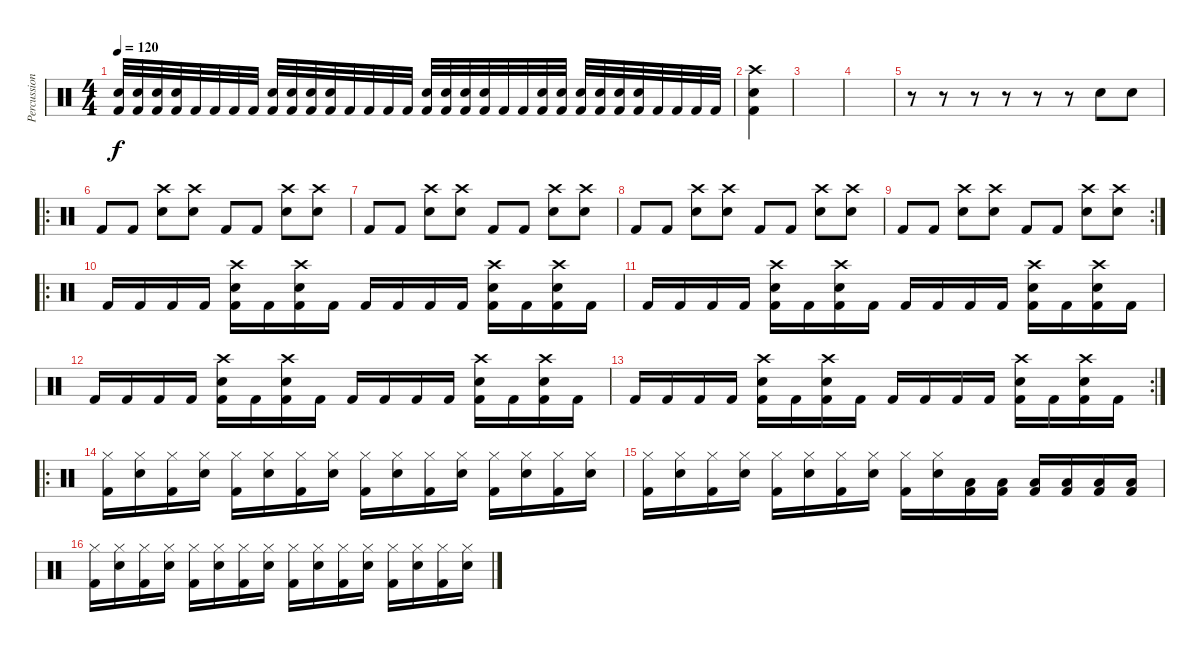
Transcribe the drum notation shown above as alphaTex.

\track ("Percussion" "Percussion") {instrument percussion}
\staff {score}
\articulation defaults
\ts (4 4)
\tempo 120
\clef neutral
\ks c
("Snare (hit) 2" "Kick (hit) 2").32{dy f} ("Snare (hit) 2" "Kick (hit) 2").32 ("Snare (hit) 2" "Kick (hit) 2").32 ("Snare (hit) 2" "Kick (hit) 2").32 "Kick (hit) 2".32 "Kick (hit) 2".32 "Kick (hit) 2".32 "Kick (hit) 2".32 ("Snare (hit) 2" "Kick (hit) 2").32 ("Snare (hit) 2" "Kick (hit) 2").32 ("Snare (hit) 2" "Kick (hit) 2").32 ("Snare (hit) 2" "Kick (hit) 2").32 "Kick (hit) 2".32 "Kick (hit) 2".32 "Kick (hit) 2".32 "Kick (hit) 2".32 ("Snare (hit) 2" "Kick (hit) 2").32 ("Snare (hit) 2" "Kick (hit) 2").32 ("Snare (hit) 2" "Kick (hit) 2").32 ("Snare (hit) 2" "Kick (hit) 2").32 "Kick (hit) 2".32 "Kick (hit) 2".32 ("Snare (hit) 2" "Kick (hit) 2").32 ("Snare (hit) 2" "Kick (hit) 2").32 ("Snare (hit) 2" "Kick (hit) 2").32 ("Snare (hit) 2" "Kick (hit) 2").32 ("Snare (hit) 2" "Kick (hit) 2").32 ("Snare (hit) 2" "Kick (hit) 2").32 "Kick (hit) 2".32 "Kick (hit) 2".32 "Kick (hit) 2".32 "Kick (hit) 2".32 |
("Crash high (hit)" "Snare (hit) 2" "Kick (hit) 2").4 |
|
|
r.8 r.8 r.8 r.8 r.8 r.8 "Snare (hit) 2".8 "Snare (hit) 2".8 |
\ro "Kick (hit) 2".8 "Kick (hit) 2".8
("Crash high (hit)" "Snare (hit) 2").8 ("Crash high (hit)" "Snare (hit) 2").8 "Kick (hit) 2".8 "Kick (hit) 2".8 ("Crash high (hit)" "Snare (hit) 2").8 ("Crash high (hit)" "Snare (hit) 2").8 |
"Kick (hit) 2".8 "Kick (hit) 2".8 ("Crash high (hit)" "Snare (hit) 2").8 ("Crash high (hit)" "Snare (hit) 2").8 "Kick (hit) 2".8 "Kick (hit) 2".8 ("Crash high (hit)" "Snare (hit) 2").8 ("Crash high (hit)" "Snare (hit) 2").8 |
"Kick (hit) 2".8 "Kick (hit) 2".8 ("Crash high (hit)" "Snare (hit) 2").8 ("Crash high (hit)" "Snare (hit) 2").8 "Kick (hit) 2".8 "Kick (hit) 2".8 ("Crash high (hit)" "Snare (hit) 2").8 ("Crash high (hit)" "Snare (hit) 2").8 |
\rc 2 "Kick (hit) 2".8 "Kick (hit) 2".8
("Crash high (hit)" "Snare (hit) 2").8 ("Crash high (hit)" "Snare (hit) 2").8 "Kick (hit) 2".8 "Kick (hit) 2".8 ("Crash high (hit)" "Snare (hit) 2").8 ("Crash high (hit)" "Snare (hit) 2").8 |
\ro "Kick (hit) 2".16 "Kick (hit) 2".16 "Kick (hit) 2".16 "Kick (hit) 2".16
("Crash high (hit)" "Snare (hit) 2" "Kick (hit) 2").16 "Kick (hit) 2".16 ("Crash high (hit)" "Snare (hit) 2" "Kick (hit) 2").16 "Kick (hit) 2".16 "Kick (hit) 2".16 "Kick (hit) 2".16 "Kick (hit) 2".16 "Kick (hit) 2".16 ("Crash high (hit)" "Snare (hit) 2" "Kick (hit) 2").16 "Kick (hit) 2".16 ("Crash high (hit)" "Snare (hit) 2" "Kick (hit) 2").16 "Kick (hit) 2".16 |
"Kick (hit) 2".16 "Kick (hit) 2".16 "Kick (hit) 2".16 "Kick (hit) 2".16 ("Crash high (hit)" "Snare (hit) 2" "Kick (hit) 2").16 "Kick (hit) 2".16 ("Crash high (hit)" "Snare (hit) 2" "Kick (hit) 2").16 "Kick (hit) 2".16 "Kick (hit) 2".16 "Kick (hit) 2".16 "Kick (hit) 2".16 "Kick (hit) 2".16 ("Crash high (hit)" "Snare (hit) 2" "Kick (hit) 2").16 "Kick (hit) 2".16 ("Crash high (hit)" "Snare (hit) 2" "Kick (hit) 2").16 "Kick (hit) 2".16 |
"Kick (hit) 2".16 "Kick (hit) 2".16 "Kick (hit) 2".16 "Kick (hit) 2".16 ("Crash high (hit)" "Snare (hit) 2" "Kick (hit) 2").16 "Kick (hit) 2".16 ("Crash high (hit)" "Snare (hit) 2" "Kick (hit) 2").16 "Kick (hit) 2".16 "Kick (hit) 2".16 "Kick (hit) 2".16 "Kick (hit) 2".16 "Kick (hit) 2".16 ("Crash high (hit)" "Snare (hit) 2" "Kick (hit) 2").16 "Kick (hit) 2".16 ("Crash high (hit)" "Snare (hit) 2" "Kick (hit) 2").16 "Kick (hit) 2".16 |
\rc 2 "Kick (hit) 2".16 "Kick (hit) 2".16 "Kick (hit) 2".16 "Kick (hit) 2".16
("Crash high (hit)" "Snare (hit) 2" "Kick (hit) 2").16 "Kick (hit) 2".16 ("Crash high (hit)" "Snare (hit) 2" "Kick (hit) 2").16 "Kick (hit) 2".16 "Kick (hit) 2".16 "Kick (hit) 2".16 "Kick (hit) 2".16 "Kick (hit) 2".16 ("Crash high (hit)" "Snare (hit) 2" "Kick (hit) 2").16 "Kick (hit) 2".16 ("Crash high (hit)" "Snare (hit) 2" "Kick (hit) 2").16 "Kick (hit) 2".16 |
\ro
("Hi-Hat (closed)" "Kick (hit) 2").16 ("Hi-Hat (closed)" "Snare (hit) 2").16 ("Hi-Hat (closed)" "Kick (hit) 2").16 ("Hi-Hat (closed)" "Snare (hit) 2").16 ("Hi-Hat (closed)" "Kick (hit) 2").16 ("Hi-Hat (closed)" "Snare (hit) 2").16 ("Hi-Hat (closed)" "Kick (hit) 2").16 ("Hi-Hat (closed)" "Snare (hit) 2").16 ("Hi-Hat (closed)" "Kick (hit) 2").16 ("Hi-Hat (closed)" "Snare (hit) 2").16 ("Hi-Hat (closed)" "Kick (hit) 2").16 ("Hi-Hat (closed)" "Snare (hit) 2").16 ("Hi-Hat (closed)" "Kick (hit) 2").16 ("Hi-Hat (closed)" "Snare (hit) 2").16 ("Hi-Hat (closed)" "Kick (hit) 2").16 ("Hi-Hat (closed)" "Snare (hit) 2").16 |
("Hi-Hat (closed)" "Kick (hit) 2").16 ("Hi-Hat (closed)" "Snare (hit) 2").16 ("Hi-Hat (closed)" "Kick (hit) 2").16 ("Hi-Hat (closed)" "Snare (hit) 2").16 ("Hi-Hat (closed)" "Kick (hit) 2").16 ("Hi-Hat (closed)" "Snare (hit) 2").16 ("Hi-Hat (closed)" "Kick (hit) 2").16 ("Hi-Hat (closed)" "Snare (hit) 2").16 ("Hi-Hat (closed)" "Kick (hit) 2").16 ("Hi-Hat (closed)" "Snare (hit) 2").16 ("Low Tom (hit)" "Kick (hit) 2").16 ("Low Tom (hit)" "Kick (hit) 2").16 ("Low Tom (hit)" "Kick (hit) 2").16 ("Low Tom (hit)" "Kick (hit) 2").16 ("Low Tom (hit)" "Kick (hit) 2").16 ("Low Tom (hit)" "Kick (hit) 2").16 |
("Hi-Hat (closed)" "Kick (hit) 2").16 ("Hi-Hat (closed)" "Snare (hit) 2").16 ("Hi-Hat (closed)" "Kick (hit) 2").16 ("Hi-Hat (closed)" "Snare (hit) 2").16 ("Hi-Hat (closed)" "Kick (hit) 2").16 ("Hi-Hat (closed)" "Snare (hit) 2").16 ("Hi-Hat (closed)" "Kick (hit) 2").16 ("Hi-Hat (closed)" "Snare (hit) 2").16 ("Hi-Hat (closed)" "Kick (hit) 2").16 ("Hi-Hat (closed)" "Snare (hit) 2").16 ("Hi-Hat (closed)" "Kick (hit) 2").16 ("Hi-Hat (closed)" "Snare (hit) 2").16 ("Hi-Hat (closed)" "Kick (hit) 2").16 ("Hi-Hat (closed)" "Snare (hit) 2").16 ("Hi-Hat (closed)" "Kick (hit) 2").16 ("Hi-Hat (closed)" "Snare (hit) 2").16
